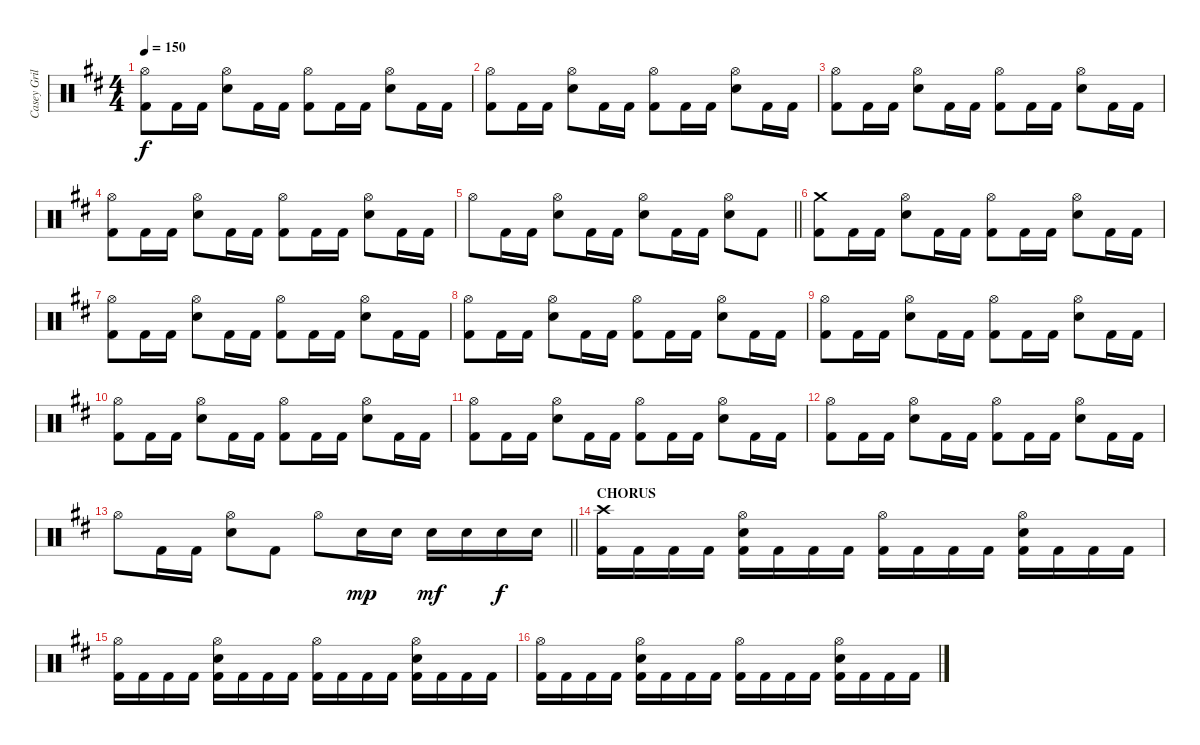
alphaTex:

\track ("Casey Grillo" "Casey Gril") {instrument percussion}
\staff {score}
\articulation defaults
\ts (4 4)
\tempo 150
\clef neutral
\ks bminor
("Hi-Hat (open)" "Kick (hit) 2").8{dy f} "Kick (hit) 2".16 "Kick (hit) 2".16 ("Hi-Hat (open)" "Electric Snare (hit)").8 "Kick (hit) 2".16 "Kick (hit) 2".16 ("Hi-Hat (open)" "Kick (hit) 2").8 "Kick (hit) 2".16 "Kick (hit) 2".16 ("Hi-Hat (open)" "Electric Snare (hit)").8 "Kick (hit) 2".16 "Kick (hit) 2".16 |
("Hi-Hat (open)" "Kick (hit) 2").8 "Kick (hit) 2".16 "Kick (hit) 2".16 ("Hi-Hat (open)" "Electric Snare (hit)").8 "Kick (hit) 2".16 "Kick (hit) 2".16 ("Hi-Hat (open)" "Kick (hit) 2").8 "Kick (hit) 2".16 "Kick (hit) 2".16 ("Hi-Hat (open)" "Electric Snare (hit)").8 "Kick (hit) 2".16 "Kick (hit) 2".16 |
("Hi-Hat (open)" "Kick (hit) 2").8 "Kick (hit) 2".16 "Kick (hit) 2".16 ("Hi-Hat (open)" "Electric Snare (hit)").8 "Kick (hit) 2".16 "Kick (hit) 2".16 ("Hi-Hat (open)" "Kick (hit) 2").8 "Kick (hit) 2".16 "Kick (hit) 2".16 ("Hi-Hat (open)" "Electric Snare (hit)").8 "Kick (hit) 2".16 "Kick (hit) 2".16 |
("Hi-Hat (open)" "Kick (hit) 2").8 "Kick (hit) 2".16 "Kick (hit) 2".16 ("Hi-Hat (open)" "Electric Snare (hit)").8 "Kick (hit) 2".16 "Kick (hit) 2".16 ("Hi-Hat (open)" "Kick (hit) 2").8 "Kick (hit) 2".16 "Kick (hit) 2".16 ("Hi-Hat (open)" "Electric Snare (hit)").8 "Kick (hit) 2".16 "Kick (hit) 2".16 |
\barLineRight lightlight "Hi-Hat (open)".8 "Kick (hit) 2".16 "Kick (hit) 2".16
("Hi-Hat (open)" "Electric Snare (hit)").8 "Kick (hit) 2".16 "Kick (hit) 2".16 ("Hi-Hat (open)" "Electric Snare (hit)").8 "Kick (hit) 2".16 "Kick (hit) 2".16 ("Hi-Hat (open)" "Electric Snare (hit)").8 "Kick (hit) 2".8 |
("Crash medium (hit)" "Kick (hit) 2").8 "Kick (hit) 2".16 "Kick (hit) 2".16 ("Hi-Hat (open)" "Electric Snare (hit)").8 "Kick (hit) 2".16 "Kick (hit) 2".16 ("Hi-Hat (open)" "Kick (hit) 2").8 "Kick (hit) 2".16 "Kick (hit) 2".16 ("Hi-Hat (open)" "Electric Snare (hit)").8 "Kick (hit) 2".16 "Kick (hit) 2".16 |
("Hi-Hat (open)" "Kick (hit) 2").8 "Kick (hit) 2".16 "Kick (hit) 2".16 ("Hi-Hat (open)" "Electric Snare (hit)").8 "Kick (hit) 2".16 "Kick (hit) 2".16 ("Hi-Hat (open)" "Kick (hit) 2").8 "Kick (hit) 2".16 "Kick (hit) 2".16 ("Hi-Hat (open)" "Electric Snare (hit)").8 "Kick (hit) 2".16 "Kick (hit) 2".16 |
("Hi-Hat (open)" "Kick (hit) 2").8 "Kick (hit) 2".16 "Kick (hit) 2".16 ("Hi-Hat (open)" "Electric Snare (hit)").8 "Kick (hit) 2".16 "Kick (hit) 2".16 ("Hi-Hat (open)" "Kick (hit) 2").8 "Kick (hit) 2".16 "Kick (hit) 2".16 ("Hi-Hat (open)" "Electric Snare (hit)").8 "Kick (hit) 2".16 "Kick (hit) 2".16 |
("Hi-Hat (open)" "Kick (hit) 2").8 "Kick (hit) 2".16 "Kick (hit) 2".16 ("Hi-Hat (open)" "Electric Snare (hit)").8 "Kick (hit) 2".16 "Kick (hit) 2".16 ("Hi-Hat (open)" "Kick (hit) 2").8 "Kick (hit) 2".16 "Kick (hit) 2".16 ("Hi-Hat (open)" "Electric Snare (hit)").8 "Kick (hit) 2".16 "Kick (hit) 2".16 |
("Hi-Hat (open)" "Kick (hit) 2").8 "Kick (hit) 2".16 "Kick (hit) 2".16 ("Hi-Hat (open)" "Electric Snare (hit)").8 "Kick (hit) 2".16 "Kick (hit) 2".16 ("Hi-Hat (open)" "Kick (hit) 2").8 "Kick (hit) 2".16 "Kick (hit) 2".16 ("Hi-Hat (open)" "Electric Snare (hit)").8 "Kick (hit) 2".16 "Kick (hit) 2".16 |
("Hi-Hat (open)" "Kick (hit) 2").8 "Kick (hit) 2".16 "Kick (hit) 2".16 ("Hi-Hat (open)" "Electric Snare (hit)").8 "Kick (hit) 2".16 "Kick (hit) 2".16 ("Hi-Hat (open)" "Kick (hit) 2").8 "Kick (hit) 2".16 "Kick (hit) 2".16 ("Hi-Hat (open)" "Electric Snare (hit)").8 "Kick (hit) 2".16 "Kick (hit) 2".16 |
("Hi-Hat (open)" "Kick (hit) 2").8 "Kick (hit) 2".16 "Kick (hit) 2".16 ("Hi-Hat (open)" "Electric Snare (hit)").8 "Kick (hit) 2".16 "Kick (hit) 2".16 ("Hi-Hat (open)" "Kick (hit) 2").8 "Kick (hit) 2".16 "Kick (hit) 2".16 ("Hi-Hat (open)" "Electric Snare (hit)").8 "Kick (hit) 2".16 "Kick (hit) 2".16 |
\barLineRight lightlight "Hi-Hat (open)".8 "Kick (hit) 2".16 "Kick (hit) 2".16
("Hi-Hat (open)" "Electric Snare (hit)").8 "Kick (hit) 2".8 "Hi-Hat (open)".8 "Electric Snare (hit)".16{dy mp} "Electric Snare (hit)".16 "Electric Snare (hit)".16{dy mf} "Electric Snare (hit)".16 "Electric Snare (hit)".16{dy f} "Electric Snare (hit)".16 |
\section ("" "CHORUS")
("Crash high (hit)" "Kick (hit) 2").16 "Kick (hit) 2".16 "Kick (hit) 2".16 "Kick (hit) 2".16 ("Hi-Hat (open)" "Electric Snare (hit)" "Kick (hit) 2").16 "Kick (hit) 2".16 "Kick (hit) 2".16 "Kick (hit) 2".16 ("Hi-Hat (open)" "Kick (hit) 2").16 "Kick (hit) 2".16 "Kick (hit) 2".16 "Kick (hit) 2".16 ("Hi-Hat (open)" "Electric Snare (hit)" "Kick (hit) 2").16 "Kick (hit) 2".16 "Kick (hit) 2".16 "Kick (hit) 2".16 |
("Hi-Hat (open)" "Kick (hit) 2").16 "Kick (hit) 2".16 "Kick (hit) 2".16 "Kick (hit) 2".16 ("Hi-Hat (open)" "Electric Snare (hit)" "Kick (hit) 2").16 "Kick (hit) 2".16 "Kick (hit) 2".16 "Kick (hit) 2".16 ("Hi-Hat (open)" "Kick (hit) 2").16 "Kick (hit) 2".16 "Kick (hit) 2".16 "Kick (hit) 2".16 ("Hi-Hat (open)" "Electric Snare (hit)" "Kick (hit) 2").16 "Kick (hit) 2".16 "Kick (hit) 2".16 "Kick (hit) 2".16 |
("Hi-Hat (open)" "Kick (hit) 2").16 "Kick (hit) 2".16 "Kick (hit) 2".16 "Kick (hit) 2".16 ("Hi-Hat (open)" "Electric Snare (hit)" "Kick (hit) 2").16 "Kick (hit) 2".16 "Kick (hit) 2".16 "Kick (hit) 2".16 ("Hi-Hat (open)" "Kick (hit) 2").16 "Kick (hit) 2".16 "Kick (hit) 2".16 "Kick (hit) 2".16 ("Hi-Hat (open)" "Electric Snare (hit)" "Kick (hit) 2").16 "Kick (hit) 2".16 "Kick (hit) 2".16 "Kick (hit) 2".16
